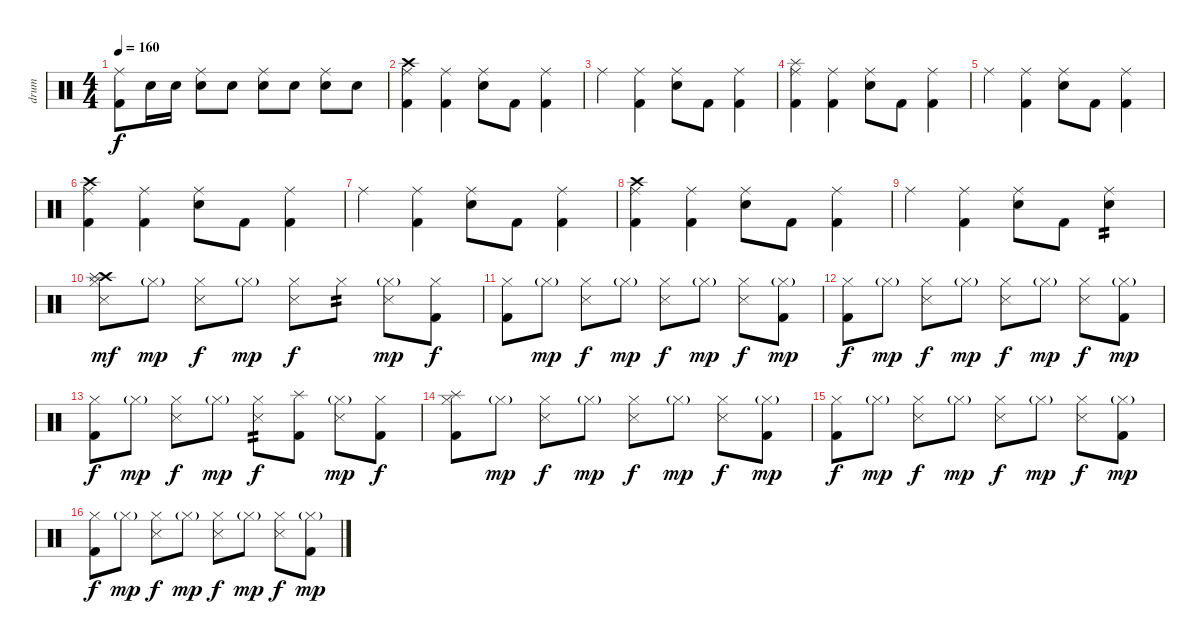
\track ("drum" "drum") {instrument percussion}
\staff {score}
\articulation defaults
\ts (4 4)
\tempo 160
\clef neutral
\ks c
("Ride (middle)" "Kick (hit) 2").8{dy f} "Electric Snare (hit)".16 "Electric Snare (hit)".16 ("Ride (middle)" "Electric Snare (hit)").8 "Electric Snare (hit)".8 ("Ride (middle)" "Electric Snare (hit)").8 "Electric Snare (hit)".8 ("Ride (middle)" "Electric Snare (hit)").8 "Electric Snare (hit)".8 |
("Crash high (hit)" "Ride (middle)" "Kick (hit) 2").4 ("Ride (middle)" "Kick (hit) 2").4 ("Ride (middle)" "Electric Snare (hit)").8 "Kick (hit) 2".8 ("Ride (middle)" "Kick (hit) 2").4 |
"Ride (middle)".4 ("Ride (middle)" "Kick (hit) 2").4 ("Ride (middle)" "Electric Snare (hit)").8 "Kick (hit) 2".8 ("Ride (middle)" "Kick (hit) 2").4 |
("Splash (hit)" "Ride (middle)" "Kick (hit) 2").4 ("Ride (middle)" "Kick (hit) 2").4 ("Ride (middle)" "Electric Snare (hit)").8 "Kick (hit) 2".8 ("Ride (middle)" "Kick (hit) 2").4 |
"Ride (middle)".4 ("Ride (middle)" "Kick (hit) 2").4 ("Ride (middle)" "Electric Snare (hit)").8 "Kick (hit) 2".8 ("Ride (middle)" "Kick (hit) 2").4 |
("Crash high (hit)" "Ride (middle)" "Kick (hit) 2").4 ("Ride (middle)" "Kick (hit) 2").4 ("Ride (middle)" "Electric Snare (hit)").8 "Kick (hit) 2".8 ("Ride (middle)" "Kick (hit) 2").4 |
"Ride (middle)".4 ("Ride (middle)" "Kick (hit) 2").4 ("Ride (middle)" "Electric Snare (hit)").8 "Kick (hit) 2".8 ("Ride (middle)" "Kick (hit) 2").4 |
("Crash high (hit)" "Ride (middle)" "Kick (hit) 2").4 ("Ride (middle)" "Kick (hit) 2").4 ("Ride (middle)" "Electric Snare (hit)").8 "Kick (hit) 2".8 ("Ride (middle)" "Kick (hit) 2").4 |
"Ride (middle)".4 ("Ride (middle)" "Kick (hit) 2").4 ("Ride (middle)" "Electric Snare (hit)").8 "Kick (hit) 2".8 ("Ride (middle)" "Electric Snare (hit)").4{tp 2} |
("Crash high (hit)" "Hi-Hat (closed)" "Splash (hit)" "Snare (side stick) 3").8{dy mf} "Hi-Hat (closed)"{g}.8{dy mp} ("Hi-Hat (closed)" "Snare (side stick) 3").8{dy f} "Hi-Hat (closed)"{g}.8{dy mp} ("Hi-Hat (closed)" "Snare (side stick) 3").8{dy f} "Hi-Hat (closed)".8{tp 2} ("Hi-Hat (closed)"{g} "Snare (side stick) 3").8{dy mp} ("Hi-Hat (closed)" "Kick (hit) 2").8{dy f} |
("Hi-Hat (closed)" "Kick (hit) 2").8 "Hi-Hat (closed)"{g}.8{dy mp} ("Hi-Hat (closed)" "Snare (side stick) 3").8{dy f} "Hi-Hat (closed)"{g}.8{dy mp} ("Hi-Hat (closed)" "Snare (side stick) 3").8{dy f} "Hi-Hat (closed)"{g}.8{dy mp} ("Hi-Hat (closed)" "Snare (side stick) 3").8{dy f} ("Hi-Hat (closed)"{g} "Kick (hit) 2").8{dy mp} |
("Hi-Hat (closed)" "Kick (hit) 2").8{dy f} "Hi-Hat (closed)"{g}.8{dy mp} ("Hi-Hat (closed)" "Snare (side stick) 3").8{dy f} "Hi-Hat (closed)"{g}.8{dy mp} ("Hi-Hat (closed)" "Snare (side stick) 3").8{dy f} "Hi-Hat (closed)"{g}.8{dy mp} ("Hi-Hat (closed)" "Snare (side stick) 3").8{dy f} ("Hi-Hat (closed)"{g} "Kick (hit) 2").8{dy mp} |
("Hi-Hat (closed)" "Kick (hit) 2").8{dy f} "Hi-Hat (closed)"{g}.8{dy mp} ("Hi-Hat (closed)" "Snare (side stick) 3").8{dy f} "Hi-Hat (closed)"{g}.8{dy mp} ("Hi-Hat (closed)" "Snare (side stick) 3").8{tp 2 dy f} ("Splash (hit)" "Kick (hit) 2").8 ("Hi-Hat (closed)"{g} "Snare (side stick) 3").8{dy mp} ("Hi-Hat (closed)" "Kick (hit) 2").8{dy f} |
("Splash (hit)" "Hi-Hat (closed)" "Kick (hit) 2").8 "Hi-Hat (closed)"{g}.8{dy mp} ("Hi-Hat (closed)" "Snare (side stick) 3").8{dy f} "Hi-Hat (closed)"{g}.8{dy mp} ("Hi-Hat (closed)" "Snare (side stick) 3").8{dy f} "Hi-Hat (closed)"{g}.8{dy mp} ("Hi-Hat (closed)" "Snare (side stick) 3").8{dy f} ("Hi-Hat (closed)"{g} "Kick (hit) 2").8{dy mp} |
("Hi-Hat (closed)" "Kick (hit) 2").8{dy f} "Hi-Hat (closed)"{g}.8{dy mp} ("Hi-Hat (closed)" "Snare (side stick) 3").8{dy f} "Hi-Hat (closed)"{g}.8{dy mp} ("Hi-Hat (closed)" "Snare (side stick) 3").8{dy f} "Hi-Hat (closed)"{g}.8{dy mp} ("Hi-Hat (closed)" "Snare (side stick) 3").8{dy f} ("Hi-Hat (closed)"{g} "Kick (hit) 2").8{dy mp} |
("Hi-Hat (closed)" "Kick (hit) 2").8{dy f} "Hi-Hat (closed)"{g}.8{dy mp} ("Hi-Hat (closed)" "Snare (side stick) 3").8{dy f} "Hi-Hat (closed)"{g}.8{dy mp} ("Hi-Hat (closed)" "Snare (side stick) 3").8{dy f} "Hi-Hat (closed)"{g}.8{dy mp} ("Hi-Hat (closed)" "Snare (side stick) 3").8{dy f} ("Hi-Hat (closed)"{g} "Kick (hit) 2").8{dy mp}
